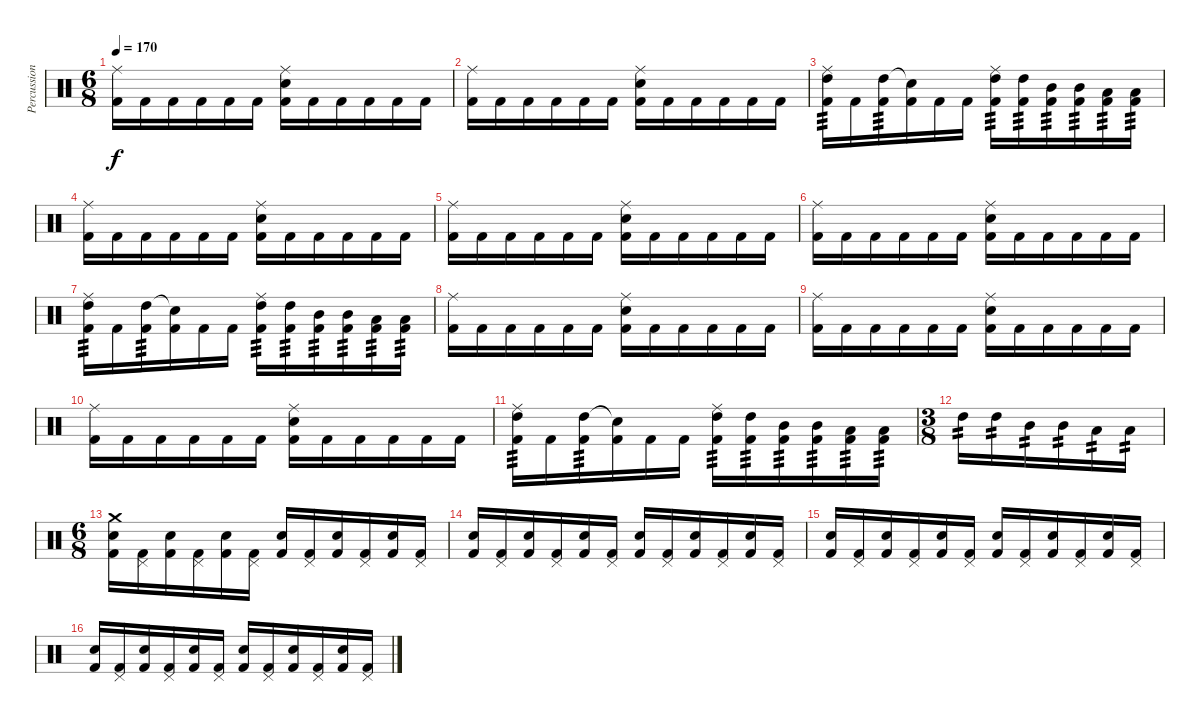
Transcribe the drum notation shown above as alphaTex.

\track ("Percussions" "Percussion") {instrument percussion}
\staff {score}
\articulation defaults
\ts (6 8)
\tempo 170
\clef neutral
\ks c
("Ride (middle)" "Kick (hit) 2").16{dy f} "Kick (hit) 2".16 "Kick (hit) 2".16 "Kick (hit) 2".16 "Kick (hit) 2".16 "Kick (hit) 2".16 ("Snare (hit) 2" "Ride (middle)" "Kick (hit) 2").16 "Kick (hit) 2".16 "Kick (hit) 2".16 "Kick (hit) 2".16 "Kick (hit) 2".16 "Kick (hit) 2".16 |
("Ride (middle)" "Kick (hit) 2").16 "Kick (hit) 2".16 "Kick (hit) 2".16 "Kick (hit) 2".16 "Kick (hit) 2".16 "Kick (hit) 2".16 ("Snare (hit) 2" "Ride (middle)" "Kick (hit) 2").16 "Kick (hit) 2".16 "Kick (hit) 2".16 "Kick (hit) 2".16 "Kick (hit) 2".16 "Kick (hit) 2".16 |
("Ride (middle)" "High Tom (hit)" "Kick (hit) 2").16{tp 3} "Kick (hit) 2".16 ("High Tom (hit)" "Kick (hit) 2").16{tp 3} ("Snare (hit)"{t} "Kick (hit) 2").16 "Kick (hit) 2".16 "Kick (hit) 2".16 ("Ride (middle)" "High Tom (hit)" "Kick (hit) 2").16{tp 3} ("High Tom (hit)" "Kick (hit) 2").16{tp 3} ("Mid Tom (hit)" "Kick (hit) 2").16{tp 3} ("Mid Tom (hit)" "Kick (hit) 2").16{tp 3} ("Low Tom (hit)" "Kick (hit) 2").16{tp 3} ("Low Tom (hit)" "Kick (hit) 2").16{tp 3} |
("Ride (middle)" "Kick (hit) 2").16 "Kick (hit) 2".16 "Kick (hit) 2".16 "Kick (hit) 2".16 "Kick (hit) 2".16 "Kick (hit) 2".16 ("Snare (hit) 2" "Ride (middle)" "Kick (hit) 2").16 "Kick (hit) 2".16 "Kick (hit) 2".16 "Kick (hit) 2".16 "Kick (hit) 2".16 "Kick (hit) 2".16 |
("Ride (middle)" "Kick (hit) 2").16 "Kick (hit) 2".16 "Kick (hit) 2".16 "Kick (hit) 2".16 "Kick (hit) 2".16 "Kick (hit) 2".16 ("Snare (hit) 2" "Ride (middle)" "Kick (hit) 2").16 "Kick (hit) 2".16 "Kick (hit) 2".16 "Kick (hit) 2".16 "Kick (hit) 2".16 "Kick (hit) 2".16 |
("Ride (middle)" "Kick (hit) 2").16 "Kick (hit) 2".16 "Kick (hit) 2".16 "Kick (hit) 2".16 "Kick (hit) 2".16 "Kick (hit) 2".16 ("Snare (hit) 2" "Ride (middle)" "Kick (hit) 2").16 "Kick (hit) 2".16 "Kick (hit) 2".16 "Kick (hit) 2".16 "Kick (hit) 2".16 "Kick (hit) 2".16 |
("Ride (middle)" "High Tom (hit)" "Kick (hit) 2").16{tp 3} "Kick (hit) 2".16 ("High Tom (hit)" "Kick (hit) 2").16{tp 3} ("Snare (hit)"{t} "Kick (hit) 2").16 "Kick (hit) 2".16 "Kick (hit) 2".16 ("Ride (middle)" "High Tom (hit)" "Kick (hit) 2").16{tp 3} ("High Tom (hit)" "Kick (hit) 2").16{tp 3} ("Mid Tom (hit)" "Kick (hit) 2").16{tp 3} ("Mid Tom (hit)" "Kick (hit) 2").16{tp 3} ("Low Tom (hit)" "Kick (hit) 2").16{tp 3} ("Low Tom (hit)" "Kick (hit) 2").16{tp 3} |
("Ride (middle)" "Kick (hit) 2").16 "Kick (hit) 2".16 "Kick (hit) 2".16 "Kick (hit) 2".16 "Kick (hit) 2".16 "Kick (hit) 2".16 ("Snare (hit) 2" "Ride (middle)" "Kick (hit) 2").16 "Kick (hit) 2".16 "Kick (hit) 2".16 "Kick (hit) 2".16 "Kick (hit) 2".16 "Kick (hit) 2".16 |
("Ride (middle)" "Kick (hit) 2").16 "Kick (hit) 2".16 "Kick (hit) 2".16 "Kick (hit) 2".16 "Kick (hit) 2".16 "Kick (hit) 2".16 ("Snare (hit) 2" "Ride (middle)" "Kick (hit) 2").16 "Kick (hit) 2".16 "Kick (hit) 2".16 "Kick (hit) 2".16 "Kick (hit) 2".16 "Kick (hit) 2".16 |
("Ride (middle)" "Kick (hit) 2").16 "Kick (hit) 2".16 "Kick (hit) 2".16 "Kick (hit) 2".16 "Kick (hit) 2".16 "Kick (hit) 2".16 ("Snare (hit) 2" "Ride (middle)" "Kick (hit) 2").16 "Kick (hit) 2".16 "Kick (hit) 2".16 "Kick (hit) 2".16 "Kick (hit) 2".16 "Kick (hit) 2".16 |
("Ride (middle)" "High Tom (hit)" "Kick (hit) 2").16{tp 3} "Kick (hit) 2".16 ("High Tom (hit)" "Kick (hit) 2").16{tp 3} ("Snare (hit)"{t} "Kick (hit) 2").16 "Kick (hit) 2".16 "Kick (hit) 2".16 ("Ride (middle)" "High Tom (hit)" "Kick (hit) 2").16{tp 3} ("High Tom (hit)" "Kick (hit) 2").16{tp 3} ("Mid Tom (hit)" "Kick (hit) 2").16{tp 3} ("Mid Tom (hit)" "Kick (hit) 2").16{tp 3} ("Low Tom (hit)" "Kick (hit) 2").16{tp 3} ("Low Tom (hit)" "Kick (hit) 2").16{tp 3} |
\ts (3 8)
"High Tom (hit)".16{tp 2} "High Tom (hit)".16{tp 2} "Mid Tom (hit)".16{tp 2} "Mid Tom (hit)".16{tp 2} "Low Tom (hit)".16{tp 2} "Low Tom (hit)".16{tp 2} |
\ts (6 8)
("Crash medium (hit)" "Snare (hit) 2" "Kick (hit) 2").16 ("Pedal Hi-Hat (hit)" "Kick (hit) 2").16 ("Snare (hit) 2" "Kick (hit) 2").16 ("Pedal Hi-Hat (hit)" "Kick (hit) 2").16 ("Snare (hit) 2" "Kick (hit) 2").16 ("Pedal Hi-Hat (hit)" "Kick (hit) 2").16 ("Snare (hit) 2" "Kick (hit) 2").16 ("Pedal Hi-Hat (hit)" "Kick (hit) 2").16 ("Snare (hit) 2" "Kick (hit) 2").16 ("Pedal Hi-Hat (hit)" "Kick (hit) 2").16 ("Snare (hit) 2" "Kick (hit) 2").16 ("Pedal Hi-Hat (hit)" "Kick (hit) 2").16 |
("Snare (hit) 2" "Kick (hit) 2").16 ("Pedal Hi-Hat (hit)" "Kick (hit) 2").16 ("Snare (hit) 2" "Kick (hit) 2").16 ("Pedal Hi-Hat (hit)" "Kick (hit) 2").16 ("Snare (hit) 2" "Kick (hit) 2").16 ("Pedal Hi-Hat (hit)" "Kick (hit) 2").16 ("Snare (hit) 2" "Kick (hit) 2").16 ("Pedal Hi-Hat (hit)" "Kick (hit) 2").16 ("Snare (hit) 2" "Kick (hit) 2").16 ("Pedal Hi-Hat (hit)" "Kick (hit) 2").16 ("Snare (hit) 2" "Kick (hit) 2").16 ("Pedal Hi-Hat (hit)" "Kick (hit) 2").16 |
("Snare (hit) 2" "Kick (hit) 2").16 ("Pedal Hi-Hat (hit)" "Kick (hit) 2").16 ("Snare (hit) 2" "Kick (hit) 2").16 ("Pedal Hi-Hat (hit)" "Kick (hit) 2").16 ("Snare (hit) 2" "Kick (hit) 2").16 ("Pedal Hi-Hat (hit)" "Kick (hit) 2").16 ("Snare (hit) 2" "Kick (hit) 2").16 ("Pedal Hi-Hat (hit)" "Kick (hit) 2").16 ("Snare (hit) 2" "Kick (hit) 2").16 ("Pedal Hi-Hat (hit)" "Kick (hit) 2").16 ("Snare (hit) 2" "Kick (hit) 2").16 ("Pedal Hi-Hat (hit)" "Kick (hit) 2").16 |
("Snare (hit) 2" "Kick (hit) 2").16 ("Pedal Hi-Hat (hit)" "Kick (hit) 2").16 ("Snare (hit) 2" "Kick (hit) 2").16 ("Pedal Hi-Hat (hit)" "Kick (hit) 2").16 ("Snare (hit) 2" "Kick (hit) 2").16 ("Pedal Hi-Hat (hit)" "Kick (hit) 2").16 ("Snare (hit) 2" "Kick (hit) 2").16 ("Pedal Hi-Hat (hit)" "Kick (hit) 2").16 ("Snare (hit) 2" "Kick (hit) 2").16 ("Pedal Hi-Hat (hit)" "Kick (hit) 2").16 ("Snare (hit) 2" "Kick (hit) 2").16 ("Pedal Hi-Hat (hit)" "Kick (hit) 2").16
